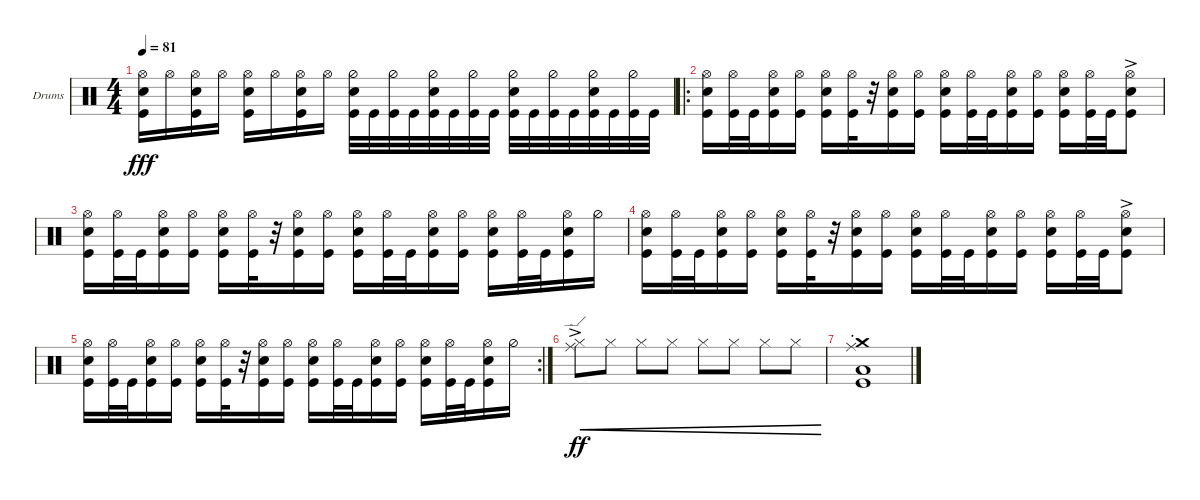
\bracketExtendMode groupsimilarinstruments
\firstSystemTrackNameOrientation horizontal
\otherSystemsTrackNameOrientation horizontal
\track ("Drumkit" "Drums") {instrument percussion}
\staff {score}
\articulation defaults
\ts (4 4)
\tempo 81
\clef neutral
\ks c
("Hi-Hat (open)" "Kick (hit)" "Snare (hit) 2").16{dy fff} "Hi-Hat (open)".16 ("Hi-Hat (open)" "Kick (hit)" "Snare (hit) 2").16 "Hi-Hat (open)".16 ("Hi-Hat (open)" "Kick (hit)" "Snare (hit) 2").16 "Hi-Hat (open)".16 ("Hi-Hat (open)" "Kick (hit)" "Snare (hit) 2").16 "Hi-Hat (open)".16 ("Kick (hit)" "Hi-Hat (half)" "Snare (hit) 2").32 "Kick (hit)".32 ("Kick (hit)" "Hi-Hat (half)").32 "Kick (hit)".32 ("Kick (hit)" "Hi-Hat (half)" "Snare (hit) 2").32 "Kick (hit)".32 ("Kick (hit)" "Hi-Hat (half)").32 "Kick (hit)".32 ("Kick (hit)" "Hi-Hat (half)" "Snare (hit) 2").32 "Kick (hit)".32 ("Kick (hit)" "Hi-Hat (half)").32 "Kick (hit)".32 ("Kick (hit)" "Hi-Hat (half)" "Snare (hit) 2").32 "Kick (hit)".32 ("Kick (hit)" "Hi-Hat (half)").32 "Kick (hit)".32 |
\ro
("Kick (hit)" "Hi-Hat (open)" "Snare (hit) 2").16 ("Kick (hit)" "Hi-Hat (open)").32 "Kick (hit)".32 ("Kick (hit)" "Hi-Hat (open)" "Snare (hit) 2").16 ("Kick (hit)" "Hi-Hat (open)").16 ("Kick (hit)" "Hi-Hat (open)" "Snare (hit) 2").16 ("Kick (hit)" "Hi-Hat (open)").32 r.32 ("Kick (hit)" "Hi-Hat (open)" "Snare (hit) 2").16 ("Kick (hit)" "Hi-Hat (open)").16 ("Kick (hit)" "Hi-Hat (open)" "Snare (hit) 2").16 ("Kick (hit)" "Hi-Hat (open)").32 "Kick (hit)".32 ("Kick (hit)" "Hi-Hat (open)" "Snare (hit) 2").16 ("Kick (hit)" "Hi-Hat (open)").16 ("Kick (hit)" "Hi-Hat (open)" "Snare (hit) 2").16 ("Kick (hit)" "Hi-Hat (open)").32 "Kick (hit)".32 ("Kick (hit)" "Hi-Hat (open)"{ac} "Snare (hit) 2").8 |
("Kick (hit)" "Hi-Hat (open)" "Snare (hit) 2").16 ("Kick (hit)" "Hi-Hat (open)").32 "Kick (hit)".32 ("Kick (hit)" "Hi-Hat (open)" "Snare (hit) 2").16 ("Kick (hit)" "Hi-Hat (open)").16 ("Kick (hit)" "Hi-Hat (open)" "Snare (hit) 2").16 ("Kick (hit)" "Hi-Hat (open)").32 r.32 ("Kick (hit)" "Hi-Hat (open)" "Snare (hit) 2").16 ("Kick (hit)" "Hi-Hat (open)").16 ("Kick (hit)" "Hi-Hat (open)" "Snare (hit) 2").16 ("Kick (hit)" "Hi-Hat (open)").32 "Kick (hit)".32 ("Kick (hit)" "Hi-Hat (open)" "Snare (hit) 2").16 ("Kick (hit)" "Hi-Hat (open)").16 ("Kick (hit)" "Hi-Hat (open)" "Snare (hit) 2").16 ("Kick (hit)" "Hi-Hat (open)").32 "Kick (hit)".32 ("Kick (hit)" "Hi-Hat (open)" "Snare (hit) 2").16 "Hi-Hat (half)".16 |
("Kick (hit)" "Hi-Hat (open)" "Snare (hit) 2").16 ("Kick (hit)" "Hi-Hat (open)").32 "Kick (hit)".32 ("Kick (hit)" "Hi-Hat (open)" "Snare (hit) 2").16 ("Kick (hit)" "Hi-Hat (open)").16 ("Kick (hit)" "Hi-Hat (open)" "Snare (hit) 2").16 ("Kick (hit)" "Hi-Hat (open)").32 r.32 ("Kick (hit)" "Hi-Hat (open)" "Snare (hit) 2").16 ("Kick (hit)" "Hi-Hat (open)").16 ("Kick (hit)" "Hi-Hat (open)" "Snare (hit) 2").16 ("Kick (hit)" "Hi-Hat (open)").32 "Kick (hit)".32 ("Kick (hit)" "Hi-Hat (open)" "Snare (hit) 2").16 ("Kick (hit)" "Hi-Hat (open)").16 ("Kick (hit)" "Hi-Hat (open)" "Snare (hit) 2").16 ("Kick (hit)" "Hi-Hat (open)").32 "Kick (hit)".32 ("Kick (hit)" "Hi-Hat (open)"{ac} "Snare (hit) 2").8 |
\rc 2
("Kick (hit)" "Hi-Hat (open)" "Snare (hit) 2").16 ("Kick (hit)" "Hi-Hat (open)").32 "Kick (hit)".32 ("Kick (hit)" "Hi-Hat (open)" "Snare (hit) 2").16 ("Kick (hit)" "Hi-Hat (open)").16 ("Kick (hit)" "Hi-Hat (open)" "Snare (hit) 2").16 ("Kick (hit)" "Hi-Hat (open)").32 r.32 ("Kick (hit)" "Hi-Hat (open)" "Snare (hit) 2").16 ("Kick (hit)" "Hi-Hat (open)").16 ("Kick (hit)" "Hi-Hat (open)" "Snare (hit) 2").16 ("Kick (hit)" "Hi-Hat (open)").32 "Kick (hit)".32 ("Kick (hit)" "Hi-Hat (open)" "Snare (hit) 2").16 ("Kick (hit)" "Hi-Hat (open)").16 ("Kick (hit)" "Hi-Hat (open)" "Snare (hit) 2").16 ("Kick (hit)" "Hi-Hat (open)").32 "Kick (hit)".32 ("Kick (hit)" "Hi-Hat (open)" "Snare (hit) 2").16 "Hi-Hat (half)".16 |
("Hi-Hat (closed)" "Ride (edge)"{ac}).8{cre dy ff} "Hi-Hat (closed)".8{cre} "Hi-Hat (closed)".8{cre} "Hi-Hat (closed)".8{cre} "Hi-Hat (closed)".8{cre} "Hi-Hat (closed)".8{cre} "Hi-Hat (closed)".8{cre} "Hi-Hat (closed)".8{cre} |
("Kick (hit)" "Low Tom (hit)" "Crash medium (hit)"{st} "Ride (middle)"{st}).1
